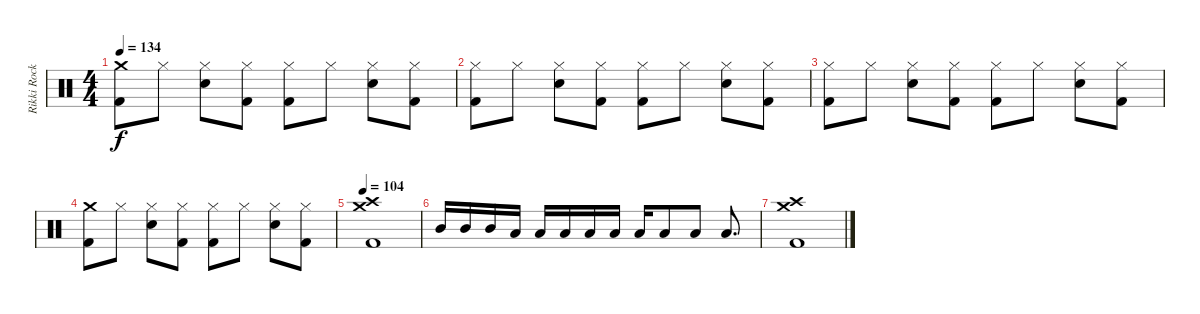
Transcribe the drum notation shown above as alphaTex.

\track ("Rikki Rocket" "Rikki Rock") {instrument percussion}
\staff {score}
\articulation defaults
\ts (4 4)
\tempo 134
\clef neutral
\ks c
("Crash medium (hit)" "Kick (hit) 2").8{dy f} "Hi-Hat (closed)".8 ("Hi-Hat (closed)" "Snare (hit) 2").8 ("Hi-Hat (closed)" "Kick (hit) 2").8 ("Hi-Hat (closed)" "Kick (hit) 2").8 "Hi-Hat (closed)".8 ("Hi-Hat (closed)" "Snare (hit) 2").8 ("Hi-Hat (closed)" "Kick (hit) 2").8 |
("Hi-Hat (closed)" "Kick (hit) 2").8 "Hi-Hat (closed)".8 ("Hi-Hat (closed)" "Snare (hit) 2").8 ("Hi-Hat (closed)" "Kick (hit) 2").8 ("Hi-Hat (closed)" "Kick (hit) 2").8 "Hi-Hat (closed)".8 ("Hi-Hat (closed)" "Snare (hit) 2").8 ("Hi-Hat (closed)" "Kick (hit) 2").8 |
("Hi-Hat (closed)" "Kick (hit) 2").8 "Hi-Hat (closed)".8 ("Hi-Hat (closed)" "Snare (hit) 2").8 ("Hi-Hat (closed)" "Kick (hit) 2").8 ("Hi-Hat (closed)" "Kick (hit) 2").8 "Hi-Hat (closed)".8 ("Hi-Hat (closed)" "Snare (hit) 2").8 ("Hi-Hat (closed)" "Kick (hit) 2").8 |
("Crash medium (hit)" "Kick (hit) 2").8 "Hi-Hat (closed)".8 ("Hi-Hat (closed)" "Snare (hit) 2").8 ("Hi-Hat (closed)" "Kick (hit) 2").8 ("Hi-Hat (closed)" "Kick (hit) 2").8 "Hi-Hat (closed)".8 ("Hi-Hat (closed)" "Snare (hit) 2").8 ("Hi-Hat (closed)" "Kick (hit) 2").8 |
\tempo 104
("Crash medium (hit)" "Crash high (hit)" "Kick (hit) 2").1 |
"Mid Tom (hit)".16 "Mid Tom (hit)".16 "Mid Tom (hit)".16 "Low Tom (hit)".16 "Low Tom (hit)".16 "Low Tom (hit)".16 "Low Floor Tom (hit)".16 "Low Floor Tom (hit)".16 "Low Floor Tom (hit)".16 "Low Tom (hit)".8 "Low Tom (hit)".8 "Low Tom (hit)".8{d} |
("Crash medium (hit)" "Crash high (hit)" "Kick (hit) 2").1
